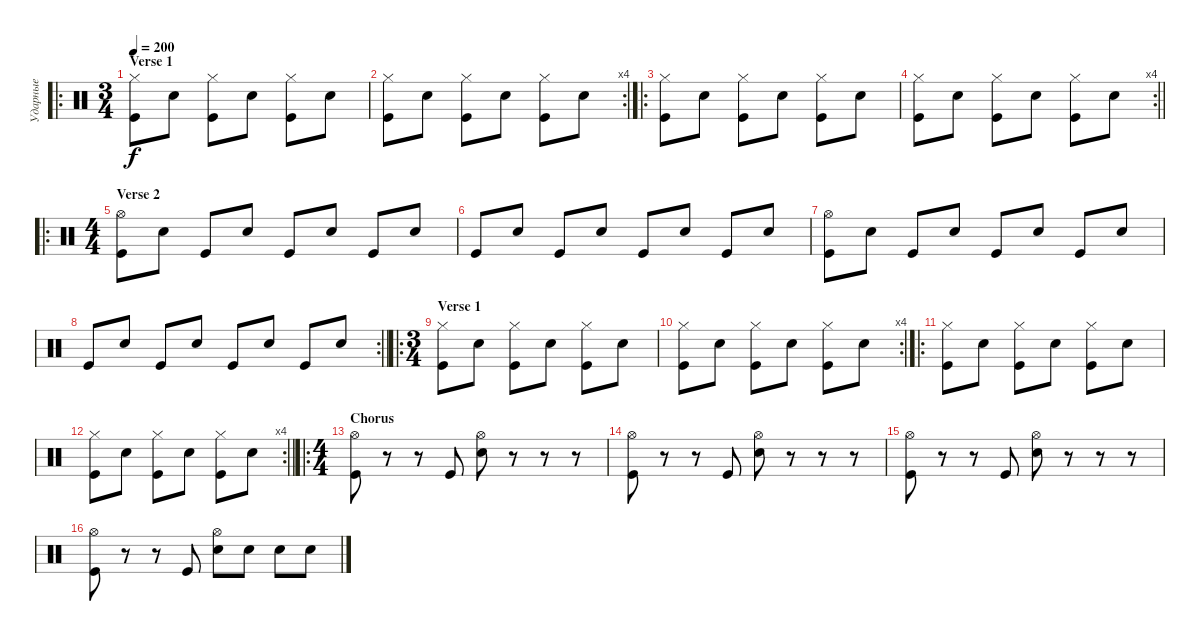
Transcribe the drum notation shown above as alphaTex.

\track ("Ударные" "Ударные") {instrument percussion}
\staff {score}
\articulation defaults
\ro
\ts (3 4)
\section ("" "Verse 1")
\tempo 200
\clef neutral
\ks c
("Hi-Hat (closed)" "Kick (hit)").8{dy f} "Snare (hit) 2".8 ("Hi-Hat (closed)" "Kick (hit)").8 "Snare (hit) 2".8 ("Hi-Hat (closed)" "Kick (hit)").8 "Snare (hit) 2".8 |
\rc 4
("Hi-Hat (closed)" "Kick (hit)").8 "Snare (hit) 2".8 ("Hi-Hat (closed)" "Kick (hit)").8 "Snare (hit) 2".8 ("Hi-Hat (closed)" "Kick (hit)").8 "Snare (hit) 2".8 |
\ro
("Hi-Hat (closed)" "Kick (hit)").8 "Snare (hit) 2".8 ("Hi-Hat (closed)" "Kick (hit)").8 "Snare (hit) 2".8 ("Hi-Hat (closed)" "Kick (hit)").8 "Snare (hit) 2".8 |
\rc 4
\barLineRight lightlight
("Hi-Hat (closed)" "Kick (hit)").8 "Snare (hit) 2".8 ("Hi-Hat (closed)" "Kick (hit)").8 "Snare (hit) 2".8 ("Hi-Hat (closed)" "Kick (hit)").8 "Snare (hit) 2".8 |
\ro
\ts (4 4)
\section ("" "Verse 2")
("Hi-Hat (open)" "Kick (hit)").8 "Snare (hit) 2".8 "Kick (hit)".8 "Snare (hit) 2".8 "Kick (hit)".8 "Snare (hit) 2".8 "Kick (hit)".8 "Snare (hit) 2".8 |
"Kick (hit)".8 "Snare (hit) 2".8 "Kick (hit)".8 "Snare (hit) 2".8 "Kick (hit)".8 "Snare (hit) 2".8 "Kick (hit)".8 "Snare (hit) 2".8 |
("Hi-Hat (open)" "Kick (hit)").8 "Snare (hit) 2".8 "Kick (hit)".8 "Snare (hit) 2".8 "Kick (hit)".8 "Snare (hit) 2".8 "Kick (hit)".8 "Snare (hit) 2".8 |
\rc 2
\barLineRight lightlight "Kick (hit)".8 "Snare (hit) 2".8 "Kick (hit)".8 "Snare (hit) 2".8 "Kick (hit)".8 "Snare (hit) 2".8 "Kick (hit)".8 "Snare (hit) 2".8
|
\ro
\ts (3 4)
\section ("" "Verse 1")
("Hi-Hat (closed)" "Kick (hit)").8 "Snare (hit) 2".8 ("Hi-Hat (closed)" "Kick (hit)").8 "Snare (hit) 2".8 ("Hi-Hat (closed)" "Kick (hit)").8 "Snare (hit) 2".8 |
\rc 4
("Hi-Hat (closed)" "Kick (hit)").8 "Snare (hit) 2".8 ("Hi-Hat (closed)" "Kick (hit)").8 "Snare (hit) 2".8 ("Hi-Hat (closed)" "Kick (hit)").8 "Snare (hit) 2".8 |
\ro
("Hi-Hat (closed)" "Kick (hit)").8 "Snare (hit) 2".8 ("Hi-Hat (closed)" "Kick (hit)").8 "Snare (hit) 2".8 ("Hi-Hat (closed)" "Kick (hit)").8 "Snare (hit) 2".8 |
\rc 4
\barLineRight lightlight
("Hi-Hat (closed)" "Kick (hit)").8 "Snare (hit) 2".8 ("Hi-Hat (closed)" "Kick (hit)").8 "Snare (hit) 2".8 ("Hi-Hat (closed)" "Kick (hit)").8 "Snare (hit) 2".8 |
\ro
\ts (4 4)
\section ("" "Chorus")
("Hi-Hat (open)" "Kick (hit)").8 r.8 r.8 "Kick (hit)".8 ("Hi-Hat (open)" "Snare (hit) 2").8 r.8 r.8 r.8 |
("Hi-Hat (open)" "Kick (hit)").8 r.8 r.8 "Kick (hit)".8 ("Hi-Hat (open)" "Snare (hit) 2").8 r.8 r.8 r.8 |
("Hi-Hat (open)" "Kick (hit)").8 r.8 r.8 "Kick (hit)".8 ("Hi-Hat (open)" "Snare (hit) 2").8 r.8 r.8 r.8 |
("Hi-Hat (open)" "Kick (hit)").8 r.8 r.8 "Kick (hit)".8 ("Hi-Hat (open)" "Snare (hit) 2").8 "Snare (hit) 2".8 "Snare (hit) 2".8 "Snare (hit) 2".8
